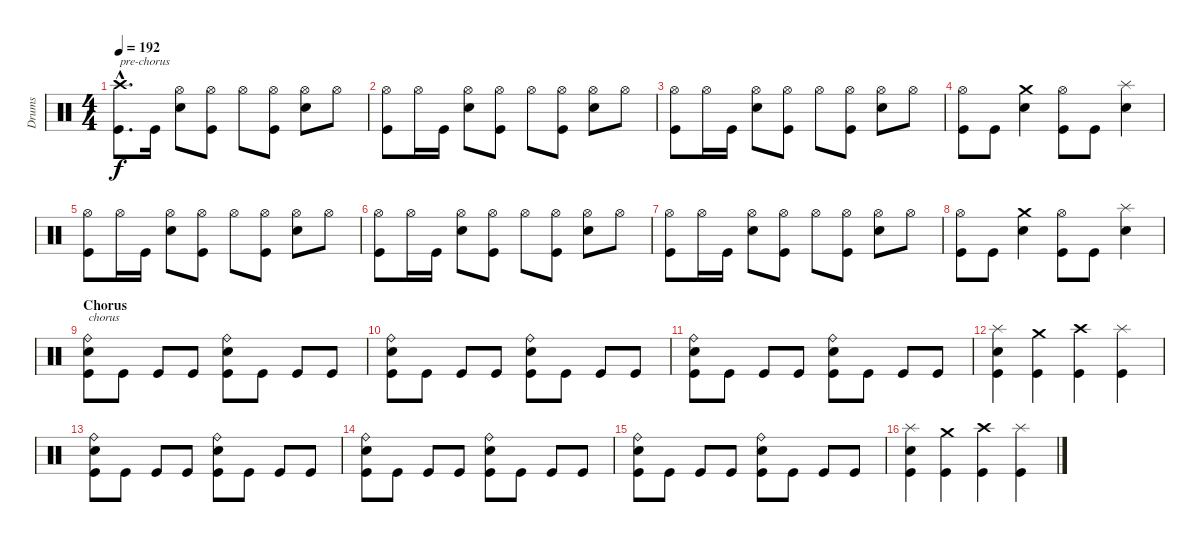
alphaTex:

\track ("Drums" "Drums") {instrument percussion}
\staff {score}
\articulation defaults
\ts (4 4)
\tempo 192
\clef neutral
\ks c
("Kick (hit)"{hac} "Crash high (hit)"{hac}).8{d txt "pre-chorus" dy f} "Kick (hit)".16 ("Electric Snare (hit)" "Hi-Hat (open)").8 ("Kick (hit)" "Hi-Hat (open)").8 "Hi-Hat (open)".8 ("Kick (hit)" "Hi-Hat (open)").8 ("Electric Snare (hit)" "Hi-Hat (open)").8 "Hi-Hat (open)".8 |
("Kick (hit)" "Hi-Hat (open)").8 "Hi-Hat (open)".16 "Kick (hit)".16 ("Electric Snare (hit)" "Hi-Hat (open)").8 ("Kick (hit)" "Hi-Hat (open)").8 "Hi-Hat (open)".8 ("Kick (hit)" "Hi-Hat (open)").8 ("Electric Snare (hit)" "Hi-Hat (open)").8 "Hi-Hat (open)".8 |
("Kick (hit)" "Hi-Hat (open)").8 "Hi-Hat (open)".16 "Kick (hit)".16 ("Electric Snare (hit)" "Hi-Hat (open)").8 ("Kick (hit)" "Hi-Hat (open)").8 "Hi-Hat (open)".8 ("Kick (hit)" "Hi-Hat (open)").8 ("Electric Snare (hit)" "Hi-Hat (open)").8 "Hi-Hat (open)".8 |
("Kick (hit)" "Hi-Hat (open)").8 "Kick (hit)".8 ("Electric Snare (hit)" "Crash medium (hit)").4 ("Kick (hit)" "Hi-Hat (open)").8 "Kick (hit)".8 ("Electric Snare (hit)" "Splash (hit)").4 |
("Kick (hit)" "Hi-Hat (open)").8 "Hi-Hat (open)".16 "Kick (hit)".16 ("Electric Snare (hit)" "Hi-Hat (open)").8 ("Kick (hit)" "Hi-Hat (open)").8 "Hi-Hat (open)".8 ("Kick (hit)" "Hi-Hat (open)").8 ("Electric Snare (hit)" "Hi-Hat (open)").8 "Hi-Hat (open)".8 |
("Kick (hit)" "Hi-Hat (open)").8 "Hi-Hat (open)".16 "Kick (hit)".16 ("Electric Snare (hit)" "Hi-Hat (open)").8 ("Kick (hit)" "Hi-Hat (open)").8 "Hi-Hat (open)".8 ("Kick (hit)" "Hi-Hat (open)").8 ("Electric Snare (hit)" "Hi-Hat (open)").8 "Hi-Hat (open)".8 |
("Kick (hit)" "Hi-Hat (open)").8 "Hi-Hat (open)".16 "Kick (hit)".16 ("Electric Snare (hit)" "Hi-Hat (open)").8 ("Kick (hit)" "Hi-Hat (open)").8 "Hi-Hat (open)".8 ("Kick (hit)" "Hi-Hat (open)").8 ("Electric Snare (hit)" "Hi-Hat (open)").8 "Hi-Hat (open)".8 |
("Kick (hit)" "Hi-Hat (open)").8 "Kick (hit)".8 ("Electric Snare (hit)" "Crash medium (hit)").4 ("Kick (hit)" "Hi-Hat (open)").8 "Kick (hit)".8 ("Electric Snare (hit)" "Splash (hit)").4 |
\section ("" "Chorus")
("Kick (hit)" "Electric Snare (hit)" "Ride (bell)").8{txt "chorus"} "Kick (hit)".8 "Kick (hit)".8 "Kick (hit)".8 ("Kick (hit)" "Electric Snare (hit)" "Ride (bell)").8 "Kick (hit)".8 "Kick (hit)".8 "Kick (hit)".8 |
("Kick (hit)" "Electric Snare (hit)" "Ride (bell)").8 "Kick (hit)".8 "Kick (hit)".8 "Kick (hit)".8 ("Kick (hit)" "Electric Snare (hit)" "Ride (bell)").8 "Kick (hit)".8 "Kick (hit)".8 "Kick (hit)".8 |
("Kick (hit)" "Electric Snare (hit)" "Ride (bell)").8 "Kick (hit)".8 "Kick (hit)".8 "Kick (hit)".8 ("Kick (hit)" "Electric Snare (hit)" "Ride (bell)").8 "Kick (hit)".8 "Kick (hit)".8 "Kick (hit)".8 |
("Kick (hit)" "Electric Snare (hit)" "Splash (hit)").4 ("Kick (hit)" "Crash medium (hit)").4 ("Kick (hit)" "Crash high (hit)").4 ("Kick (hit)" "Splash (hit)").4 |
("Kick (hit)" "Electric Snare (hit)" "Ride (bell)").8 "Kick (hit)".8 "Kick (hit)".8 "Kick (hit)".8 ("Kick (hit)" "Electric Snare (hit)" "Ride (bell)").8 "Kick (hit)".8 "Kick (hit)".8 "Kick (hit)".8 |
("Kick (hit)" "Electric Snare (hit)" "Ride (bell)").8 "Kick (hit)".8 "Kick (hit)".8 "Kick (hit)".8 ("Kick (hit)" "Electric Snare (hit)" "Ride (bell)").8 "Kick (hit)".8 "Kick (hit)".8 "Kick (hit)".8 |
("Kick (hit)" "Electric Snare (hit)" "Ride (bell)").8 "Kick (hit)".8 "Kick (hit)".8 "Kick (hit)".8 ("Kick (hit)" "Electric Snare (hit)" "Ride (bell)").8 "Kick (hit)".8 "Kick (hit)".8 "Kick (hit)".8 |
("Kick (hit)" "Electric Snare (hit)" "Splash (hit)").4 ("Kick (hit)" "Crash medium (hit)").4 ("Kick (hit)" "Crash high (hit)").4 ("Kick (hit)" "Splash (hit)").4
